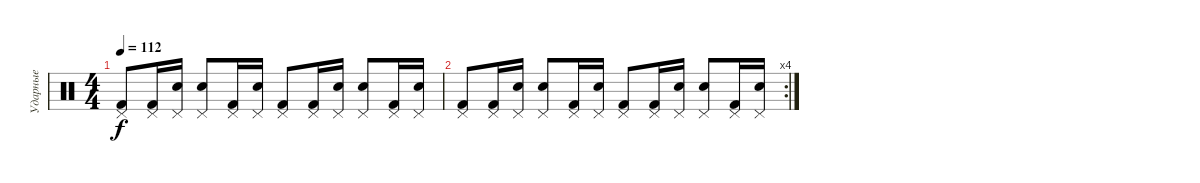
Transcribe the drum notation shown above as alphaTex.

\track ("Ударные" "Ударные") {instrument percussion}
\staff {score}
\articulation defaults
\ts (4 4)
\tempo 112
\clef neutral
\ks c
("Kick (hit) 2" "Pedal Hi-Hat (hit)").8{dy f} ("Kick (hit) 2" "Pedal Hi-Hat (hit)").16 ("Snare (hit) 2" "Pedal Hi-Hat (hit)").16 ("Snare (hit) 2" "Pedal Hi-Hat (hit)").8 ("Kick (hit) 2" "Pedal Hi-Hat (hit)").16 ("Snare (hit) 2" "Pedal Hi-Hat (hit)").16 ("Kick (hit) 2" "Pedal Hi-Hat (hit)").8 ("Kick (hit) 2" "Pedal Hi-Hat (hit)").16 ("Snare (hit) 2" "Pedal Hi-Hat (hit)").16 ("Snare (hit) 2" "Pedal Hi-Hat (hit)").8 ("Kick (hit) 2" "Pedal Hi-Hat (hit)").16 ("Snare (hit) 2" "Pedal Hi-Hat (hit)").16 |
\rc 4
("Kick (hit) 2" "Pedal Hi-Hat (hit)").8 ("Kick (hit) 2" "Pedal Hi-Hat (hit)").16 ("Snare (hit) 2" "Pedal Hi-Hat (hit)").16 ("Snare (hit) 2" "Pedal Hi-Hat (hit)").8 ("Kick (hit) 2" "Pedal Hi-Hat (hit)").16 ("Snare (hit) 2" "Pedal Hi-Hat (hit)").16 ("Kick (hit) 2" "Pedal Hi-Hat (hit)").8 ("Kick (hit) 2" "Pedal Hi-Hat (hit)").16 ("Snare (hit) 2" "Pedal Hi-Hat (hit)").16 ("Snare (hit) 2" "Pedal Hi-Hat (hit)").8 ("Kick (hit) 2" "Pedal Hi-Hat (hit)").16 ("Snare (hit) 2" "Pedal Hi-Hat (hit)").16
